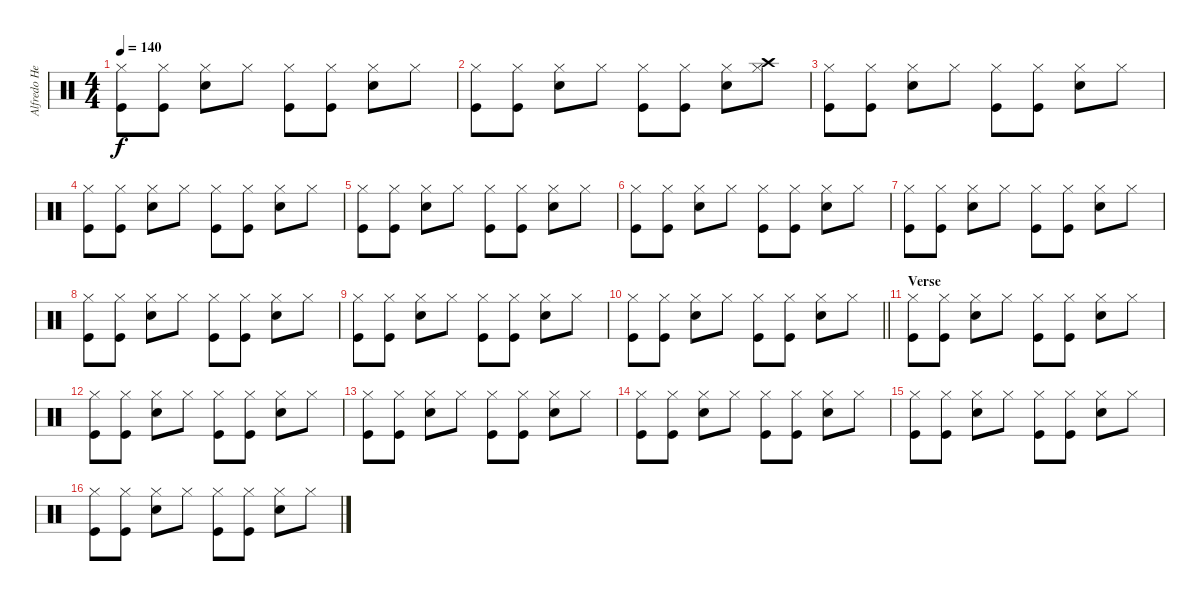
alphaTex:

\track ("Alfredo Hernandez - Percussion" "Alfredo He") {instrument percussion}
\staff {score}
\articulation defaults
\ts (4 4)
\tempo 140
\clef neutral
\ks c
("Kick (hit)" "Hi-Hat (closed)").8{dy f} ("Kick (hit)" "Hi-Hat (closed)").8 ("Snare (hit) 2" "Hi-Hat (closed)").8 "Hi-Hat (closed)".8 ("Kick (hit)" "Hi-Hat (closed)").8 ("Kick (hit)" "Hi-Hat (closed)").8 ("Snare (hit) 2" "Hi-Hat (closed)").8 "Hi-Hat (closed)".8 |
("Kick (hit)" "Hi-Hat (closed)").8 ("Kick (hit)" "Hi-Hat (closed)").8 ("Snare (hit) 2" "Hi-Hat (closed)").8 "Hi-Hat (closed)".8 ("Kick (hit)" "Hi-Hat (closed)").8 ("Kick (hit)" "Hi-Hat (closed)").8 ("Snare (hit) 2" "Hi-Hat (closed)").8 ("Crash high (hit)" "Hi-Hat (closed)").8 |
("Kick (hit)" "Hi-Hat (closed)").8 ("Kick (hit)" "Hi-Hat (closed)").8 ("Snare (hit) 2" "Hi-Hat (closed)").8 "Hi-Hat (closed)".8 ("Kick (hit)" "Hi-Hat (closed)").8 ("Kick (hit)" "Hi-Hat (closed)").8 ("Snare (hit) 2" "Hi-Hat (closed)").8 "Hi-Hat (closed)".8 |
("Kick (hit)" "Hi-Hat (closed)").8 ("Kick (hit)" "Hi-Hat (closed)").8 ("Snare (hit) 2" "Hi-Hat (closed)").8 "Hi-Hat (closed)".8 ("Kick (hit)" "Hi-Hat (closed)").8 ("Kick (hit)" "Hi-Hat (closed)").8 ("Snare (hit) 2" "Hi-Hat (closed)").8 "Hi-Hat (closed)".8 |
("Kick (hit)" "Hi-Hat (closed)").8 ("Kick (hit)" "Hi-Hat (closed)").8 ("Snare (hit) 2" "Hi-Hat (closed)").8 "Hi-Hat (closed)".8 ("Kick (hit)" "Hi-Hat (closed)").8 ("Kick (hit)" "Hi-Hat (closed)").8 ("Snare (hit) 2" "Hi-Hat (closed)").8 "Hi-Hat (closed)".8 |
("Kick (hit)" "Hi-Hat (closed)").8 ("Kick (hit)" "Hi-Hat (closed)").8 ("Snare (hit) 2" "Hi-Hat (closed)").8 "Hi-Hat (closed)".8 ("Kick (hit)" "Hi-Hat (closed)").8 ("Kick (hit)" "Hi-Hat (closed)").8 ("Snare (hit) 2" "Hi-Hat (closed)").8 "Hi-Hat (closed)".8 |
("Kick (hit)" "Hi-Hat (closed)").8 ("Kick (hit)" "Hi-Hat (closed)").8 ("Snare (hit) 2" "Hi-Hat (closed)").8 "Hi-Hat (closed)".8 ("Kick (hit)" "Hi-Hat (closed)").8 ("Kick (hit)" "Hi-Hat (closed)").8 ("Snare (hit) 2" "Hi-Hat (closed)").8 "Hi-Hat (closed)".8 |
("Kick (hit)" "Hi-Hat (closed)").8 ("Kick (hit)" "Hi-Hat (closed)").8 ("Snare (hit) 2" "Hi-Hat (closed)").8 "Hi-Hat (closed)".8 ("Kick (hit)" "Hi-Hat (closed)").8 ("Kick (hit)" "Hi-Hat (closed)").8 ("Snare (hit) 2" "Hi-Hat (closed)").8 "Hi-Hat (closed)".8 |
("Kick (hit)" "Hi-Hat (closed)").8 ("Kick (hit)" "Hi-Hat (closed)").8 ("Snare (hit) 2" "Hi-Hat (closed)").8 "Hi-Hat (closed)".8 ("Kick (hit)" "Hi-Hat (closed)").8 ("Kick (hit)" "Hi-Hat (closed)").8 ("Snare (hit) 2" "Hi-Hat (closed)").8 "Hi-Hat (closed)".8 |
\barLineRight lightlight
("Kick (hit)" "Hi-Hat (closed)").8 ("Kick (hit)" "Hi-Hat (closed)").8 ("Snare (hit) 2" "Hi-Hat (closed)").8 "Hi-Hat (closed)".8 ("Kick (hit)" "Hi-Hat (closed)").8 ("Kick (hit)" "Hi-Hat (closed)").8 ("Snare (hit) 2" "Hi-Hat (closed)").8 "Hi-Hat (closed)".8 |
\section ("" "Verse")
("Kick (hit)" "Hi-Hat (closed)").8 ("Kick (hit)" "Hi-Hat (closed)").8 ("Snare (hit) 2" "Hi-Hat (closed)").8 "Hi-Hat (closed)".8 ("Kick (hit)" "Hi-Hat (closed)").8 ("Kick (hit)" "Hi-Hat (closed)").8 ("Snare (hit) 2" "Hi-Hat (closed)").8 "Hi-Hat (closed)".8 |
("Kick (hit)" "Hi-Hat (closed)").8 ("Kick (hit)" "Hi-Hat (closed)").8 ("Snare (hit) 2" "Hi-Hat (closed)").8 "Hi-Hat (closed)".8 ("Kick (hit)" "Hi-Hat (closed)").8 ("Kick (hit)" "Hi-Hat (closed)").8 ("Snare (hit) 2" "Hi-Hat (closed)").8 "Hi-Hat (closed)".8 |
("Kick (hit)" "Hi-Hat (closed)").8 ("Kick (hit)" "Hi-Hat (closed)").8 ("Snare (hit) 2" "Hi-Hat (closed)").8 "Hi-Hat (closed)".8 ("Kick (hit)" "Hi-Hat (closed)").8 ("Kick (hit)" "Hi-Hat (closed)").8 ("Snare (hit) 2" "Hi-Hat (closed)").8 "Hi-Hat (closed)".8 |
("Kick (hit)" "Hi-Hat (closed)").8 ("Kick (hit)" "Hi-Hat (closed)").8 ("Snare (hit) 2" "Hi-Hat (closed)").8 "Hi-Hat (closed)".8 ("Kick (hit)" "Hi-Hat (closed)").8 ("Kick (hit)" "Hi-Hat (closed)").8 ("Snare (hit) 2" "Hi-Hat (closed)").8 "Hi-Hat (closed)".8 |
("Kick (hit)" "Hi-Hat (closed)").8 ("Kick (hit)" "Hi-Hat (closed)").8 ("Snare (hit) 2" "Hi-Hat (closed)").8 "Hi-Hat (closed)".8 ("Kick (hit)" "Hi-Hat (closed)").8 ("Kick (hit)" "Hi-Hat (closed)").8 ("Snare (hit) 2" "Hi-Hat (closed)").8 "Hi-Hat (closed)".8 |
("Kick (hit)" "Hi-Hat (closed)").8 ("Kick (hit)" "Hi-Hat (closed)").8 ("Snare (hit) 2" "Hi-Hat (closed)").8 "Hi-Hat (closed)".8 ("Kick (hit)" "Hi-Hat (closed)").8 ("Kick (hit)" "Hi-Hat (closed)").8 ("Snare (hit) 2" "Hi-Hat (closed)").8 "Hi-Hat (closed)".8
